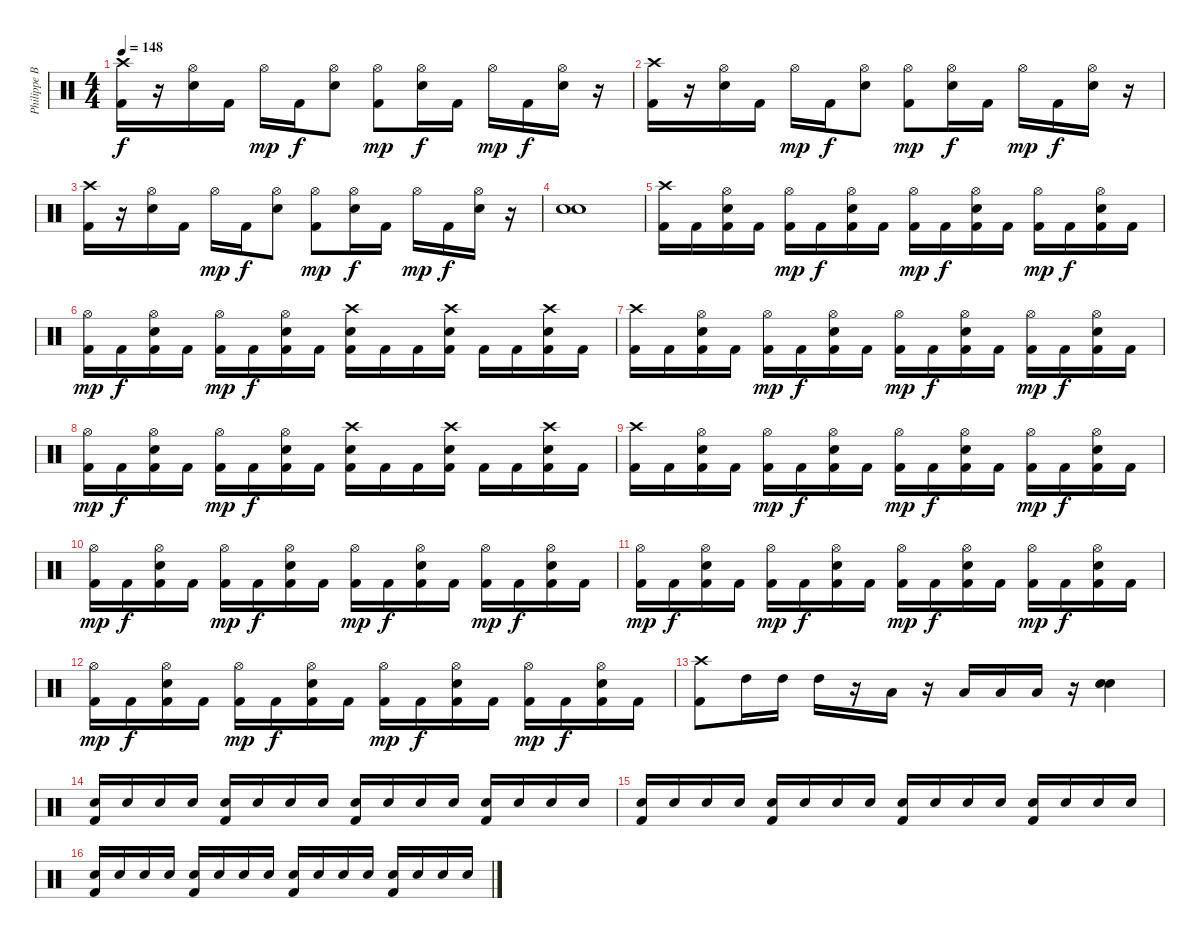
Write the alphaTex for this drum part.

\track ("Philippe Borda" "Philippe B") {instrument percussion}
\staff {score}
\articulation defaults
\ts (4 4)
\tempo 148
\clef neutral
\ks c
("Crash high (hit)" "Kick (hit) 2").16{dy f} r.16 ("Snare (hit) 2" "Hi-Hat (open)").16 "Kick (hit) 2".16 "Hi-Hat (open)".16{dy mp} "Kick (hit) 2".16{dy f} ("Snare (hit) 2" "Hi-Hat (open)").8 ("Kick (hit) 2" "Hi-Hat (open)").8{dy mp} ("Snare (hit) 2" "Hi-Hat (open)").16{dy f} "Kick (hit) 2".16 "Hi-Hat (open)".16{dy mp} "Kick (hit) 2".16{dy f} ("Snare (hit) 2" "Hi-Hat (open)").16 r.16 |
("Crash high (hit)" "Kick (hit) 2").16 r.16 ("Snare (hit) 2" "Hi-Hat (open)").16 "Kick (hit) 2".16 "Hi-Hat (open)".16{dy mp} "Kick (hit) 2".16{dy f} ("Snare (hit) 2" "Hi-Hat (open)").8 ("Kick (hit) 2" "Hi-Hat (open)").8{dy mp} ("Snare (hit) 2" "Hi-Hat (open)").16{dy f} "Kick (hit) 2".16 "Hi-Hat (open)".16{dy mp} "Kick (hit) 2".16{dy f} ("Snare (hit) 2" "Hi-Hat (open)").16 r.16 |
("Crash high (hit)" "Kick (hit) 2").16 r.16 ("Snare (hit) 2" "Hi-Hat (open)").16 "Kick (hit) 2".16 "Hi-Hat (open)".16{dy mp} "Kick (hit) 2".16{dy f} ("Snare (hit) 2" "Hi-Hat (open)").8 ("Kick (hit) 2" "Hi-Hat (open)").8{dy mp} ("Snare (hit) 2" "Hi-Hat (open)").16{dy f} "Kick (hit) 2".16 "Hi-Hat (open)".16{dy mp} "Kick (hit) 2".16{dy f} ("Snare (hit) 2" "Hi-Hat (open)").16 r.16 |
("Snare (hit) 2" "Snare (hit) 2").1 |
("Crash high (hit)" "Kick (hit) 2").16 "Kick (hit) 2".16 ("Kick (hit) 2" "Snare (hit) 2" "Hi-Hat (open)").16 "Kick (hit) 2".16 ("Kick (hit) 2" "Hi-Hat (open)").16{dy mp} "Kick (hit) 2".16{dy f} ("Kick (hit) 2" "Snare (hit) 2" "Hi-Hat (open)").16 "Kick (hit) 2".16 ("Kick (hit) 2" "Hi-Hat (open)").16{dy mp} "Kick (hit) 2".16{dy f} ("Kick (hit) 2" "Snare (hit) 2" "Hi-Hat (open)").16 "Kick (hit) 2".16 ("Kick (hit) 2" "Hi-Hat (open)").16{dy mp} "Kick (hit) 2".16{dy f} ("Kick (hit) 2" "Snare (hit) 2" "Hi-Hat (open)").16 "Kick (hit) 2".16 |
("Kick (hit) 2" "Hi-Hat (open)").16{dy mp} "Kick (hit) 2".16{dy f} ("Kick (hit) 2" "Snare (hit) 2" "Hi-Hat (open)").16 "Kick (hit) 2".16 ("Kick (hit) 2" "Hi-Hat (open)").16{dy mp} "Kick (hit) 2".16{dy f} ("Kick (hit) 2" "Hi-Hat (open)" "Snare (hit) 2").16 "Kick (hit) 2".16 ("Crash high (hit)" "Kick (hit) 2" "Snare (hit) 2").16 "Kick (hit) 2".16 "Kick (hit) 2".16 ("Crash high (hit)" "Kick (hit) 2" "Snare (hit) 2").16 "Kick (hit) 2".16 "Kick (hit) 2".16 ("Crash high (hit)" "Kick (hit) 2" "Snare (hit) 2").16 "Kick (hit) 2".16 |
("Crash high (hit)" "Kick (hit) 2").16 "Kick (hit) 2".16 ("Kick (hit) 2" "Snare (hit) 2" "Hi-Hat (open)").16 "Kick (hit) 2".16 ("Kick (hit) 2" "Hi-Hat (open)").16{dy mp} "Kick (hit) 2".16{dy f} ("Kick (hit) 2" "Snare (hit) 2" "Hi-Hat (open)").16 "Kick (hit) 2".16 ("Kick (hit) 2" "Hi-Hat (open)").16{dy mp} "Kick (hit) 2".16{dy f} ("Kick (hit) 2" "Snare (hit) 2" "Hi-Hat (open)").16 "Kick (hit) 2".16 ("Kick (hit) 2" "Hi-Hat (open)").16{dy mp} "Kick (hit) 2".16{dy f} ("Kick (hit) 2" "Snare (hit) 2" "Hi-Hat (open)").16 "Kick (hit) 2".16 |
("Kick (hit) 2" "Hi-Hat (open)").16{dy mp} "Kick (hit) 2".16{dy f} ("Kick (hit) 2" "Snare (hit) 2" "Hi-Hat (open)").16 "Kick (hit) 2".16 ("Kick (hit) 2" "Hi-Hat (open)").16{dy mp} "Kick (hit) 2".16{dy f} ("Kick (hit) 2" "Hi-Hat (open)" "Snare (hit) 2").16 "Kick (hit) 2".16 ("Crash high (hit)" "Kick (hit) 2" "Snare (hit) 2").16 "Kick (hit) 2".16 "Kick (hit) 2".16 ("Crash high (hit)" "Kick (hit) 2" "Snare (hit) 2").16 "Kick (hit) 2".16 "Kick (hit) 2".16 ("Crash high (hit)" "Kick (hit) 2" "Snare (hit) 2").16 "Kick (hit) 2".16 |
("Crash high (hit)" "Kick (hit) 2").16 "Kick (hit) 2".16 ("Kick (hit) 2" "Snare (hit) 2" "Hi-Hat (open)").16 "Kick (hit) 2".16 ("Kick (hit) 2" "Hi-Hat (open)").16{dy mp} "Kick (hit) 2".16{dy f} ("Kick (hit) 2" "Snare (hit) 2" "Hi-Hat (open)").16 "Kick (hit) 2".16 ("Kick (hit) 2" "Hi-Hat (open)").16{dy mp} "Kick (hit) 2".16{dy f} ("Kick (hit) 2" "Snare (hit) 2" "Hi-Hat (open)").16 "Kick (hit) 2".16 ("Kick (hit) 2" "Hi-Hat (open)").16{dy mp} "Kick (hit) 2".16{dy f} ("Kick (hit) 2" "Hi-Hat (open)" "Snare (hit) 2").16 "Kick (hit) 2".16 |
("Kick (hit) 2" "Hi-Hat (open)").16{dy mp} "Kick (hit) 2".16{dy f} ("Kick (hit) 2" "Hi-Hat (open)" "Snare (hit) 2").16 "Kick (hit) 2".16 ("Kick (hit) 2" "Hi-Hat (open)").16{dy mp} "Kick (hit) 2".16{dy f} ("Kick (hit) 2" "Hi-Hat (open)" "Snare (hit) 2").16 "Kick (hit) 2".16 ("Kick (hit) 2" "Hi-Hat (open)").16{dy mp} "Kick (hit) 2".16{dy f} ("Kick (hit) 2" "Hi-Hat (open)" "Snare (hit) 2").16 "Kick (hit) 2".16 ("Kick (hit) 2" "Hi-Hat (open)").16{dy mp} "Kick (hit) 2".16{dy f} ("Kick (hit) 2" "Snare (hit) 2" "Hi-Hat (open)").16 "Kick (hit) 2".16 |
("Kick (hit) 2" "Hi-Hat (open)").16{dy mp} "Kick (hit) 2".16{dy f} ("Kick (hit) 2" "Hi-Hat (open)" "Snare (hit) 2").16 "Kick (hit) 2".16 ("Kick (hit) 2" "Hi-Hat (open)").16{dy mp} "Kick (hit) 2".16{dy f} ("Kick (hit) 2" "Hi-Hat (open)" "Snare (hit) 2").16 "Kick (hit) 2".16 ("Kick (hit) 2" "Hi-Hat (open)").16{dy mp} "Kick (hit) 2".16{dy f} ("Kick (hit) 2" "Hi-Hat (open)" "Snare (hit) 2").16 "Kick (hit) 2".16 ("Kick (hit) 2" "Hi-Hat (open)").16{dy mp} "Kick (hit) 2".16{dy f} ("Kick (hit) 2" "Snare (hit) 2" "Hi-Hat (open)").16 "Kick (hit) 2".16 |
("Kick (hit) 2" "Hi-Hat (open)").16{dy mp} "Kick (hit) 2".16{dy f} ("Kick (hit) 2" "Hi-Hat (open)" "Snare (hit) 2").16 "Kick (hit) 2".16 ("Kick (hit) 2" "Hi-Hat (open)").16{dy mp} "Kick (hit) 2".16{dy f} ("Kick (hit) 2" "Hi-Hat (open)" "Snare (hit) 2").16 "Kick (hit) 2".16 ("Kick (hit) 2" "Hi-Hat (open)").16{dy mp} "Kick (hit) 2".16{dy f} ("Kick (hit) 2" "Hi-Hat (open)" "Snare (hit) 2").16 "Kick (hit) 2".16 ("Kick (hit) 2" "Hi-Hat (open)").16{dy mp} "Kick (hit) 2".16{dy f} ("Kick (hit) 2" "Snare (hit) 2" "Hi-Hat (open)").16 "Kick (hit) 2".16 |
("Crash high (hit)" "Kick (hit) 2").8 "High Tom (hit)".16 "High Tom (hit)".16 "High Tom (hit)".16 r.16 "Low Tom (hit)".16 r.16 "Low Tom (hit)".16 "Low Tom (hit)".16 "Low Tom (hit)".16 r.16 ("Snare (hit) 2" "Snare (hit) 2").4 |
("Snare (hit) 2" "Kick (hit) 2").16 "Snare (hit) 2".16 "Snare (hit) 2".16 "Snare (hit) 2".16 ("Snare (hit) 2" "Kick (hit) 2").16 "Snare (hit) 2".16 "Snare (hit) 2".16 "Snare (hit) 2".16 ("Snare (hit) 2" "Kick (hit) 2").16 "Snare (hit) 2".16 "Snare (hit) 2".16 "Snare (hit) 2".16 ("Snare (hit) 2" "Kick (hit) 2").16 "Snare (hit) 2".16 "Snare (hit) 2".16 "Snare (hit) 2".16 |
("Kick (hit) 2" "Snare (hit) 2").16 "Snare (hit) 2".16 "Snare (hit) 2".16 "Snare (hit) 2".16 ("Kick (hit) 2" "Snare (hit) 2").16 "Snare (hit) 2".16 "Snare (hit) 2".16 "Snare (hit) 2".16 ("Kick (hit) 2" "Snare (hit) 2").16 "Snare (hit) 2".16 "Snare (hit) 2".16 "Snare (hit) 2".16 ("Kick (hit) 2" "Snare (hit) 2").16 "Snare (hit) 2".16 "Snare (hit) 2".16 "Snare (hit) 2".16 |
("Kick (hit) 2" "Snare (hit) 2").16 "Snare (hit) 2".16 "Snare (hit) 2".16 "Snare (hit) 2".16 ("Kick (hit) 2" "Snare (hit) 2").16 "Snare (hit) 2".16 "Snare (hit) 2".16 "Snare (hit) 2".16 ("Kick (hit) 2" "Snare (hit) 2").16 "Snare (hit) 2".16 "Snare (hit) 2".16 "Snare (hit) 2".16 ("Kick (hit) 2" "Snare (hit) 2").16 "Snare (hit) 2".16 "Snare (hit) 2".16 "Snare (hit) 2".16
